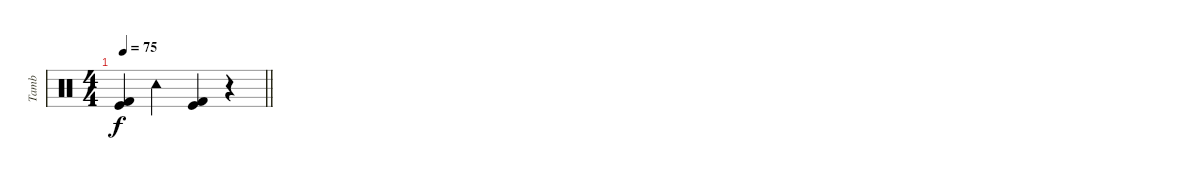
\track ("Tamb" "Tamb") {instrument percussion}
\staff {score}
\articulation defaults
\ts (4 4)
\tempo 75
\clef neutral
\barLineRight lightlight
\ks c
("Kick (hit) 2" "Kick (hit)").4{dy f} "Tambourine (hit)".4 ("Kick (hit) 2" "Kick (hit)").4 r.4
